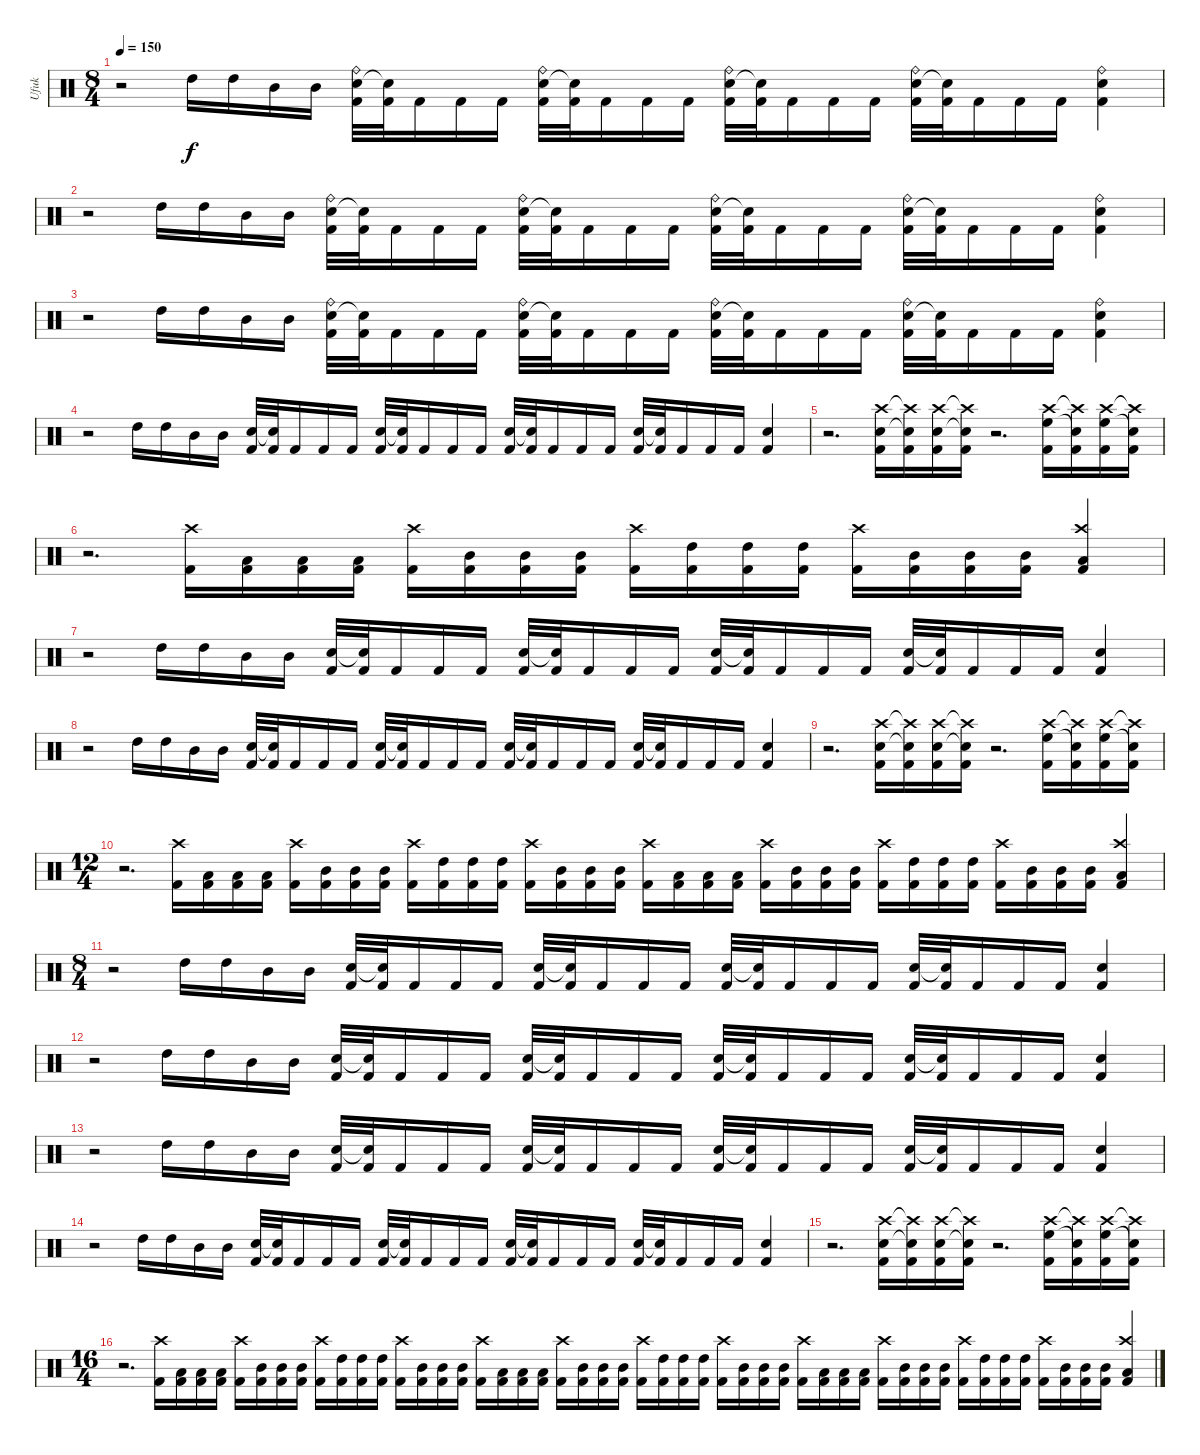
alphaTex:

\track ("Ufuk" "Ufuk") {instrument percussion}
\staff {score}
\articulation defaults
\ts (8 4)
\tempo 150
\clef neutral
\ks c
r.2{dy f} "High Tom (hit)".16 "High Tom (hit)".16 "Mid Tom (hit)".16 "Mid Tom (hit)".16 ("Kick (hit) 2" "Electric Snare (hit)" "Ride (bell)").32 ("Kick (hit) 2" "Electric Snare (hit)"{t}).32 "Kick (hit) 2".16 "Kick (hit) 2".16 "Kick (hit) 2".16 ("Kick (hit) 2" "Electric Snare (hit)" "Ride (bell)").32 ("Kick (hit) 2" "Snare (hit)"{t}).32 "Kick (hit) 2".16 "Kick (hit) 2".16 "Kick (hit) 2".16 ("Kick (hit) 2" "Electric Snare (hit)" "Ride (bell)").32 ("Kick (hit) 2" "Snare (hit)"{t}).32 "Kick (hit) 2".16 "Kick (hit) 2".16 "Kick (hit) 2".16 ("Kick (hit) 2" "Electric Snare (hit)" "Ride (bell)").32 ("Kick (hit) 2" "Snare (hit)"{t}).32 "Kick (hit) 2".16 "Kick (hit) 2".16 "Kick (hit) 2".16 ("Kick (hit) 2" "Electric Snare (hit)" "Ride (bell)").4 |
r.2 "High Tom (hit)".16 "High Tom (hit)".16 "Mid Tom (hit)".16 "Mid Tom (hit)".16 ("Kick (hit) 2" "Electric Snare (hit)" "Ride (bell)").32 ("Kick (hit) 2" "Electric Snare (hit)"{t}).32 "Kick (hit) 2".16 "Kick (hit) 2".16 "Kick (hit) 2".16 ("Kick (hit) 2" "Electric Snare (hit)" "Ride (bell)").32 ("Kick (hit) 2" "Snare (hit)"{t}).32 "Kick (hit) 2".16 "Kick (hit) 2".16 "Kick (hit) 2".16 ("Kick (hit) 2" "Electric Snare (hit)" "Ride (bell)").32 ("Kick (hit) 2" "Snare (hit)"{t}).32 "Kick (hit) 2".16 "Kick (hit) 2".16 "Kick (hit) 2".16 ("Kick (hit) 2" "Electric Snare (hit)" "Ride (bell)").32 ("Kick (hit) 2" "Snare (hit)"{t}).32 "Kick (hit) 2".16 "Kick (hit) 2".16 "Kick (hit) 2".16 ("Kick (hit) 2" "Electric Snare (hit)" "Ride (bell)").4 |
r.2 "High Tom (hit)".16 "High Tom (hit)".16 "Mid Tom (hit)".16 "Mid Tom (hit)".16 ("Kick (hit) 2" "Electric Snare (hit)" "Ride (bell)").32 ("Kick (hit) 2" "Electric Snare (hit)"{t}).32 "Kick (hit) 2".16 "Kick (hit) 2".16 "Kick (hit) 2".16 ("Kick (hit) 2" "Electric Snare (hit)" "Ride (bell)").32 ("Kick (hit) 2" "Snare (hit)"{t}).32 "Kick (hit) 2".16 "Kick (hit) 2".16 "Kick (hit) 2".16 ("Kick (hit) 2" "Electric Snare (hit)" "Ride (bell)").32 ("Kick (hit) 2" "Snare (hit)"{t}).32 "Kick (hit) 2".16 "Kick (hit) 2".16 "Kick (hit) 2".16 ("Kick (hit) 2" "Electric Snare (hit)" "Ride (bell)").32 ("Kick (hit) 2" "Snare (hit)"{t}).32 "Kick (hit) 2".16 "Kick (hit) 2".16 "Kick (hit) 2".16 ("Kick (hit) 2" "Electric Snare (hit)" "Ride (bell)").4 |
r.2 "High Tom (hit)".16 "High Tom (hit)".16 "Mid Tom (hit)".16 "Mid Tom (hit)".16 ("Kick (hit) 2" "Electric Snare (hit)").32 ("Kick (hit) 2" "Electric Snare (hit)"{t}).32 "Kick (hit) 2".16 "Kick (hit) 2".16 "Kick (hit) 2".16 ("Kick (hit) 2" "Electric Snare (hit)").32 ("Kick (hit) 2" "Snare (hit)"{t}).32 "Kick (hit) 2".16 "Kick (hit) 2".16 "Kick (hit) 2".16 ("Kick (hit) 2" "Electric Snare (hit)").32 ("Kick (hit) 2" "Snare (hit)"{t}).32 "Kick (hit) 2".16 "Kick (hit) 2".16 "Kick (hit) 2".16 ("Kick (hit) 2" "Electric Snare (hit)").32 ("Kick (hit) 2" "Snare (hit)"{t}).32 "Kick (hit) 2".16 "Kick (hit) 2".16 "Kick (hit) 2".16 ("Kick (hit) 2" "Electric Snare (hit)").4 |
r.2{d} ("Kick (hit) 2" "Electric Snare (hit)" "Crash high (hit)").16 ("Kick (hit) 2" "Electric Snare (hit)"{t} "Crash high (hit)"{t}).16 ("Kick (hit) 2" "Electric Snare (hit)" "Crash high (hit)").16 ("Kick (hit) 2" "Electric Snare (hit)"{t} "Crash high (hit)"{t}).16 r.2{d} ("Kick (hit) 2" "High Floor Tom (hit)" "Crash high (hit)").16 ("Kick (hit) 2" "Electric Snare (hit)"{t} "Crash high (hit)"{t}).16 ("Kick (hit) 2" "High Floor Tom (hit)" "Crash high (hit)").16 ("Kick (hit) 2" "Electric Snare (hit)"{t} "Crash high (hit)"{t}).16 |
r.2{d} ("Kick (hit) 2" "Crash high (hit)").16 ("Kick (hit) 2" "Low Tom (hit)").16 ("Kick (hit) 2" "Low Tom (hit)").16 ("Kick (hit) 2" "Low Tom (hit)").16 ("Kick (hit) 2" "Crash high (hit)").16 ("Kick (hit) 2" "Mid Tom (hit)").16 ("Kick (hit) 2" "Mid Tom (hit)").16 ("Kick (hit) 2" "Mid Tom (hit)").16 ("Kick (hit) 2" "Crash high (hit)").16 ("Kick (hit) 2" "High Tom (hit)").16 ("Kick (hit) 2" "High Tom (hit)").16 ("Kick (hit) 2" "High Tom (hit)").16 ("Kick (hit) 2" "Crash high (hit)").16 ("Kick (hit) 2" "Mid Tom (hit)").16 ("Kick (hit) 2" "Mid Tom (hit)").16 ("Kick (hit) 2" "Mid Tom (hit)").16 ("Kick (hit) 2" "Low Tom (hit)" "Crash high (hit)").4 |
r.2 "High Tom (hit)".16 "High Tom (hit)".16 "Mid Tom (hit)".16 "Mid Tom (hit)".16 ("Kick (hit) 2" "Electric Snare (hit)").32 ("Kick (hit) 2" "Electric Snare (hit)"{t}).32 "Kick (hit) 2".16 "Kick (hit) 2".16 "Kick (hit) 2".16 ("Kick (hit) 2" "Electric Snare (hit)").32 ("Kick (hit) 2" "Snare (hit)"{t}).32 "Kick (hit) 2".16 "Kick (hit) 2".16 "Kick (hit) 2".16 ("Kick (hit) 2" "Electric Snare (hit)").32 ("Kick (hit) 2" "Snare (hit)"{t}).32 "Kick (hit) 2".16 "Kick (hit) 2".16 "Kick (hit) 2".16 ("Kick (hit) 2" "Electric Snare (hit)").32 ("Kick (hit) 2" "Snare (hit)"{t}).32 "Kick (hit) 2".16 "Kick (hit) 2".16 "Kick (hit) 2".16 ("Kick (hit) 2" "Electric Snare (hit)").4 |
r.2 "High Tom (hit)".16 "High Tom (hit)".16 "Mid Tom (hit)".16 "Mid Tom (hit)".16 ("Kick (hit) 2" "Electric Snare (hit)").32 ("Kick (hit) 2" "Electric Snare (hit)"{t}).32 "Kick (hit) 2".16 "Kick (hit) 2".16 "Kick (hit) 2".16 ("Kick (hit) 2" "Electric Snare (hit)").32 ("Kick (hit) 2" "Snare (hit)"{t}).32 "Kick (hit) 2".16 "Kick (hit) 2".16 "Kick (hit) 2".16 ("Kick (hit) 2" "Electric Snare (hit)").32 ("Kick (hit) 2" "Snare (hit)"{t}).32 "Kick (hit) 2".16 "Kick (hit) 2".16 "Kick (hit) 2".16 ("Kick (hit) 2" "Electric Snare (hit)").32 ("Kick (hit) 2" "Snare (hit)"{t}).32 "Kick (hit) 2".16 "Kick (hit) 2".16 "Kick (hit) 2".16 ("Kick (hit) 2" "Electric Snare (hit)").4 |
r.2{d} ("Kick (hit) 2" "Electric Snare (hit)" "Crash high (hit)").16 ("Kick (hit) 2" "Electric Snare (hit)"{t} "Crash high (hit)"{t}).16 ("Kick (hit) 2" "Electric Snare (hit)" "Crash high (hit)").16 ("Kick (hit) 2" "Electric Snare (hit)"{t} "Crash high (hit)"{t}).16 r.2{d} ("Kick (hit) 2" "High Floor Tom (hit)" "Crash high (hit)").16 ("Kick (hit) 2" "Electric Snare (hit)"{t} "Crash high (hit)"{t}).16 ("Kick (hit) 2" "High Floor Tom (hit)" "Crash high (hit)").16 ("Kick (hit) 2" "Electric Snare (hit)"{t} "Crash high (hit)"{t}).16 |
\ts (12 4)
r.2{d} ("Kick (hit) 2" "Crash high (hit)").16 ("Kick (hit) 2" "Low Tom (hit)").16 ("Kick (hit) 2" "Low Tom (hit)").16 ("Kick (hit) 2" "Low Tom (hit)").16 ("Kick (hit) 2" "Crash high (hit)").16 ("Kick (hit) 2" "Mid Tom (hit)").16 ("Kick (hit) 2" "Mid Tom (hit)").16 ("Kick (hit) 2" "Mid Tom (hit)").16 ("Kick (hit) 2" "Crash high (hit)").16 ("Kick (hit) 2" "High Tom (hit)").16 ("Kick (hit) 2" "High Tom (hit)").16 ("Kick (hit) 2" "High Tom (hit)").16 ("Kick (hit) 2" "Crash high (hit)").16 ("Kick (hit) 2" "Mid Tom (hit)").16 ("Kick (hit) 2" "Mid Tom (hit)").16 ("Kick (hit) 2" "Mid Tom (hit)").16 ("Kick (hit) 2" "Crash high (hit)").16 ("Kick (hit) 2" "Low Tom (hit)").16 ("Kick (hit) 2" "Low Tom (hit)").16 ("Kick (hit) 2" "Low Tom (hit)").16 ("Kick (hit) 2" "Crash high (hit)").16 ("Kick (hit) 2" "Mid Tom (hit)").16 ("Kick (hit) 2" "Mid Tom (hit)").16 ("Kick (hit) 2" "Mid Tom (hit)").16 ("Kick (hit) 2" "Crash high (hit)").16 ("Kick (hit) 2" "High Tom (hit)").16 ("Kick (hit) 2" "High Tom (hit)").16 ("Kick (hit) 2" "High Tom (hit)").16 ("Kick (hit) 2" "Crash high (hit)").16 ("Kick (hit) 2" "Mid Tom (hit)").16 ("Kick (hit) 2" "Mid Tom (hit)").16 ("Kick (hit) 2" "Mid Tom (hit)").16 ("Kick (hit) 2" "Low Tom (hit)" "Crash high (hit)").4 |
\ts (8 4)
r.2 "High Tom (hit)".16 "High Tom (hit)".16 "Mid Tom (hit)".16 "Mid Tom (hit)".16 ("Kick (hit) 2" "Electric Snare (hit)").32 ("Kick (hit) 2" "Electric Snare (hit)"{t}).32 "Kick (hit) 2".16 "Kick (hit) 2".16 "Kick (hit) 2".16 ("Kick (hit) 2" "Electric Snare (hit)").32 ("Kick (hit) 2" "Snare (hit)"{t}).32 "Kick (hit) 2".16 "Kick (hit) 2".16 "Kick (hit) 2".16 ("Kick (hit) 2" "Electric Snare (hit)").32 ("Kick (hit) 2" "Snare (hit)"{t}).32 "Kick (hit) 2".16 "Kick (hit) 2".16 "Kick (hit) 2".16 ("Kick (hit) 2" "Electric Snare (hit)").32 ("Kick (hit) 2" "Snare (hit)"{t}).32 "Kick (hit) 2".16 "Kick (hit) 2".16 "Kick (hit) 2".16 ("Kick (hit) 2" "Electric Snare (hit)").4 |
r.2 "High Tom (hit)".16 "High Tom (hit)".16 "Mid Tom (hit)".16 "Mid Tom (hit)".16 ("Kick (hit) 2" "Electric Snare (hit)").32 ("Kick (hit) 2" "Electric Snare (hit)"{t}).32 "Kick (hit) 2".16 "Kick (hit) 2".16 "Kick (hit) 2".16 ("Kick (hit) 2" "Electric Snare (hit)").32 ("Kick (hit) 2" "Snare (hit)"{t}).32 "Kick (hit) 2".16 "Kick (hit) 2".16 "Kick (hit) 2".16 ("Kick (hit) 2" "Electric Snare (hit)").32 ("Kick (hit) 2" "Snare (hit)"{t}).32 "Kick (hit) 2".16 "Kick (hit) 2".16 "Kick (hit) 2".16 ("Kick (hit) 2" "Electric Snare (hit)").32 ("Kick (hit) 2" "Snare (hit)"{t}).32 "Kick (hit) 2".16 "Kick (hit) 2".16 "Kick (hit) 2".16 ("Kick (hit) 2" "Electric Snare (hit)").4 |
r.2 "High Tom (hit)".16 "High Tom (hit)".16 "Mid Tom (hit)".16 "Mid Tom (hit)".16 ("Kick (hit) 2" "Electric Snare (hit)").32 ("Kick (hit) 2" "Electric Snare (hit)"{t}).32 "Kick (hit) 2".16 "Kick (hit) 2".16 "Kick (hit) 2".16 ("Kick (hit) 2" "Electric Snare (hit)").32 ("Kick (hit) 2" "Snare (hit)"{t}).32 "Kick (hit) 2".16 "Kick (hit) 2".16 "Kick (hit) 2".16 ("Kick (hit) 2" "Electric Snare (hit)").32 ("Kick (hit) 2" "Snare (hit)"{t}).32 "Kick (hit) 2".16 "Kick (hit) 2".16 "Kick (hit) 2".16 ("Kick (hit) 2" "Electric Snare (hit)").32 ("Kick (hit) 2" "Snare (hit)"{t}).32 "Kick (hit) 2".16 "Kick (hit) 2".16 "Kick (hit) 2".16 ("Kick (hit) 2" "Electric Snare (hit)").4 |
r.2 "High Tom (hit)".16 "High Tom (hit)".16 "Mid Tom (hit)".16 "Mid Tom (hit)".16 ("Kick (hit) 2" "Electric Snare (hit)").32 ("Kick (hit) 2" "Electric Snare (hit)"{t}).32 "Kick (hit) 2".16 "Kick (hit) 2".16 "Kick (hit) 2".16 ("Kick (hit) 2" "Electric Snare (hit)").32 ("Kick (hit) 2" "Snare (hit)"{t}).32 "Kick (hit) 2".16 "Kick (hit) 2".16 "Kick (hit) 2".16 ("Kick (hit) 2" "Electric Snare (hit)").32 ("Kick (hit) 2" "Snare (hit)"{t}).32 "Kick (hit) 2".16 "Kick (hit) 2".16 "Kick (hit) 2".16 ("Kick (hit) 2" "Electric Snare (hit)").32 ("Kick (hit) 2" "Snare (hit)"{t}).32 "Kick (hit) 2".16 "Kick (hit) 2".16 "Kick (hit) 2".16 ("Kick (hit) 2" "Electric Snare (hit)").4 |
r.2{d} ("Kick (hit) 2" "Electric Snare (hit)" "Crash high (hit)").16 ("Kick (hit) 2" "Electric Snare (hit)"{t} "Crash high (hit)"{t}).16 ("Kick (hit) 2" "Electric Snare (hit)" "Crash high (hit)").16 ("Kick (hit) 2" "Electric Snare (hit)"{t} "Crash high (hit)"{t}).16 r.2{d} ("Kick (hit) 2" "High Floor Tom (hit)" "Crash high (hit)").16 ("Kick (hit) 2" "Electric Snare (hit)"{t} "Crash high (hit)"{t}).16 ("Kick (hit) 2" "High Floor Tom (hit)" "Crash high (hit)").16 ("Kick (hit) 2" "Electric Snare (hit)"{t} "Crash high (hit)"{t}).16 |
\ts (16 4)
r.2{d} ("Kick (hit) 2" "Crash high (hit)").16 ("Kick (hit) 2" "Low Tom (hit)").16 ("Kick (hit) 2" "Low Tom (hit)").16 ("Kick (hit) 2" "Low Tom (hit)").16 ("Kick (hit) 2" "Crash high (hit)").16 ("Kick (hit) 2" "Mid Tom (hit)").16 ("Kick (hit) 2" "Mid Tom (hit)").16 ("Kick (hit) 2" "Mid Tom (hit)").16 ("Kick (hit) 2" "Crash high (hit)").16 ("Kick (hit) 2" "High Tom (hit)").16 ("Kick (hit) 2" "High Tom (hit)").16 ("Kick (hit) 2" "High Tom (hit)").16 ("Kick (hit) 2" "Crash high (hit)").16 ("Kick (hit) 2" "Mid Tom (hit)").16 ("Kick (hit) 2" "Mid Tom (hit)").16 ("Kick (hit) 2" "Mid Tom (hit)").16 ("Kick (hit) 2" "Crash high (hit)").16 ("Kick (hit) 2" "Low Tom (hit)").16 ("Kick (hit) 2" "Low Tom (hit)").16 ("Kick (hit) 2" "Low Tom (hit)").16 ("Kick (hit) 2" "Crash high (hit)").16 ("Kick (hit) 2" "Mid Tom (hit)").16 ("Kick (hit) 2" "Mid Tom (hit)").16 ("Kick (hit) 2" "Mid Tom (hit)").16 ("Kick (hit) 2" "Crash high (hit)").16 ("Kick (hit) 2" "High Tom (hit)").16 ("Kick (hit) 2" "High Tom (hit)").16 ("Kick (hit) 2" "High Tom (hit)").16 ("Kick (hit) 2" "Crash high (hit)").16 ("Kick (hit) 2" "Mid Tom (hit)").16 ("Kick (hit) 2" "Mid Tom (hit)").16 ("Kick (hit) 2" "Mid Tom (hit)").16 ("Kick (hit) 2" "Crash high (hit)").16 ("Kick (hit) 2" "Low Tom (hit)").16 ("Kick (hit) 2" "Low Tom (hit)").16 ("Kick (hit) 2" "Low Tom (hit)").16 ("Kick (hit) 2" "Crash high (hit)").16 ("Kick (hit) 2" "Mid Tom (hit)").16 ("Kick (hit) 2" "Mid Tom (hit)").16 ("Kick (hit) 2" "Mid Tom (hit)").16 ("Kick (hit) 2" "Crash high (hit)").16 ("Kick (hit) 2" "High Tom (hit)").16 ("Kick (hit) 2" "High Tom (hit)").16 ("Kick (hit) 2" "High Tom (hit)").16 ("Kick (hit) 2" "Crash high (hit)").16 ("Kick (hit) 2" "Mid Tom (hit)").16 ("Kick (hit) 2" "Mid Tom (hit)").16 ("Kick (hit) 2" "Mid Tom (hit)").16 ("Kick (hit) 2" "Low Tom (hit)" "Crash high (hit)").4
